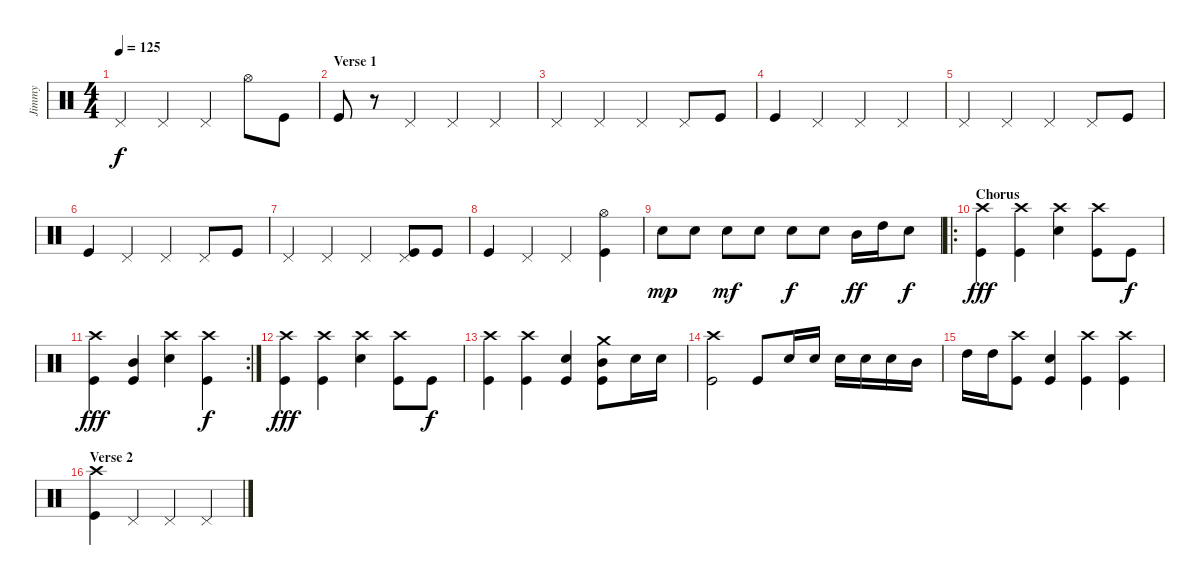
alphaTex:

\track ("Jimmy" "Jimmy") {instrument percussion}
\staff {score}
\articulation defaults
\ts (4 4)
\tempo 125
\clef neutral
\ks c "Pedal Hi-Hat (hit)".4{dy f} "Pedal Hi-Hat (hit)".4 "Pedal Hi-Hat (hit)".4 "Hi-Hat (open)".8 "Kick (hit)".8
|
\section ("" "Verse 1")
"Kick (hit)".8 r.8 "Pedal Hi-Hat (hit)".4 "Pedal Hi-Hat (hit)".4 "Pedal Hi-Hat (hit)".4 |
"Pedal Hi-Hat (hit)".4 "Pedal Hi-Hat (hit)".4 "Pedal Hi-Hat (hit)".4 "Pedal Hi-Hat (hit)".8 "Kick (hit)".8 |
"Kick (hit)".4 "Pedal Hi-Hat (hit)".4 "Pedal Hi-Hat (hit)".4 "Pedal Hi-Hat (hit)".4 |
"Pedal Hi-Hat (hit)".4 "Pedal Hi-Hat (hit)".4 "Pedal Hi-Hat (hit)".4 "Pedal Hi-Hat (hit)".8 "Kick (hit)".8 |
"Kick (hit)".4 "Pedal Hi-Hat (hit)".4 "Pedal Hi-Hat (hit)".4 "Pedal Hi-Hat (hit)".8 "Kick (hit)".8 |
"Pedal Hi-Hat (hit)".4 "Pedal Hi-Hat (hit)".4 "Pedal Hi-Hat (hit)".4 ("Kick (hit)" "Pedal Hi-Hat (hit)").8 "Kick (hit)".8 |
"Kick (hit)".4 "Pedal Hi-Hat (hit)".4 "Pedal Hi-Hat (hit)".4 ("Hi-Hat (open)" "Kick (hit)").4 |
"Snare (hit) 2".8{dy mp} "Snare (hit) 2".8 "Snare (hit) 2".8{dy mf} "Snare (hit) 2".8 "Snare (hit) 2".8{dy f} "Snare (hit) 2".8 "Mid Tom (hit)".16{dy ff} "High Tom (hit)".16 "Snare (hit) 2".8{dy f} |
\ro
\section ("" "Chorus")
("Crash high (hit)" "Kick (hit)").4{dy fff} ("Crash high (hit)" "Kick (hit)").4 ("Crash high (hit)" "Snare (hit) 2").4 ("Crash high (hit)" "Kick (hit)").8 "Kick (hit)".8{dy f} |
\rc 2
("Crash high (hit)" "Kick (hit)").4{dy fff} ("Mid Tom (hit)" "Kick (hit)").4 ("Crash high (hit)" "Snare (hit) 2").4 ("Crash high (hit)" "Kick (hit)").4{dy f} |
("Crash high (hit)" "Kick (hit)").4{dy fff} ("Crash high (hit)" "Kick (hit)").4 ("Crash high (hit)" "Snare (hit) 2").4 ("Crash high (hit)" "Kick (hit)").8 "Kick (hit)".8{dy f} |
("Crash high (hit)" "Kick (hit)").4 ("Crash high (hit)" "Kick (hit)").4 ("Snare (hit) 2" "Kick (hit)").4 ("Crash medium (hit)" "Mid Tom (hit)" "Kick (hit)").8 "Snare (hit) 2".16 "Snare (hit) 2".16 |
("Crash high (hit)" "Kick (hit)").2 "Kick (hit)".8 "Snare (hit) 2".16 "Snare (hit) 2".16 "Snare (hit) 2".16 "Snare (hit) 2".16 "Snare (hit) 2".16 "Mid Tom (hit)".16 |
"High Tom (hit)".16 "High Tom (hit)".16 ("Crash high (hit)" "Kick (hit)").8 ("Snare (hit) 2" "Kick (hit)").4 ("Crash high (hit)" "Kick (hit)").4 ("Crash high (hit)" "Kick (hit)").4 |
\section ("" "Verse 2")
("Crash high (hit)" "Kick (hit)").4 "Pedal Hi-Hat (hit)".4 "Pedal Hi-Hat (hit)".4 "Pedal Hi-Hat (hit)".4
